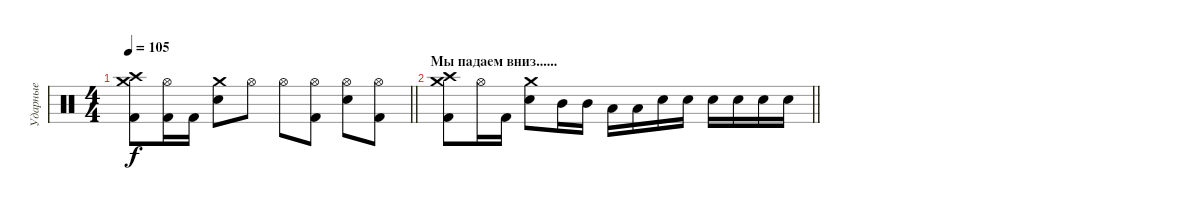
\track ("Ударные" "Ударные") {instrument percussion}
\staff
\articulation defaults
\ts (4 4)
\tempo 105
\clef neutral
\barLineRight lightlight
\ks c
("Crash medium (hit)" "Crash high (hit)" "Kick (hit) 2").8{dy f} ("Hi-Hat (open)" "Kick (hit) 2").16 "Kick (hit) 2".16 ("Crash medium (hit)" "Electric Snare (hit)").8 "Hi-Hat (open)".8 "Hi-Hat (open)".8 ("Hi-Hat (open)" "Kick (hit) 2").8 ("Hi-Hat (open)" "Electric Snare (hit)").8 ("Hi-Hat (open)" "Kick (hit) 2").8 |
\section ("" "Мы падаем вниз......")
\barLineRight lightlight
("Crash medium (hit)" "Crash high (hit)" "Kick (hit) 2").8 "Hi-Hat (open)".16 "Kick (hit) 2".16 ("Crash medium (hit)" "Electric Snare (hit)").8 "Mid Tom (hit)".16 "Mid Tom (hit)".16 "Low Tom (hit)".16 "Low Tom (hit)".16 "Electric Snare (hit)".16 "Electric Snare (hit)".16 "Electric Snare (hit)".16 "Electric Snare (hit)".16 "Electric Snare (hit)".16 "Electric Snare (hit)".16
